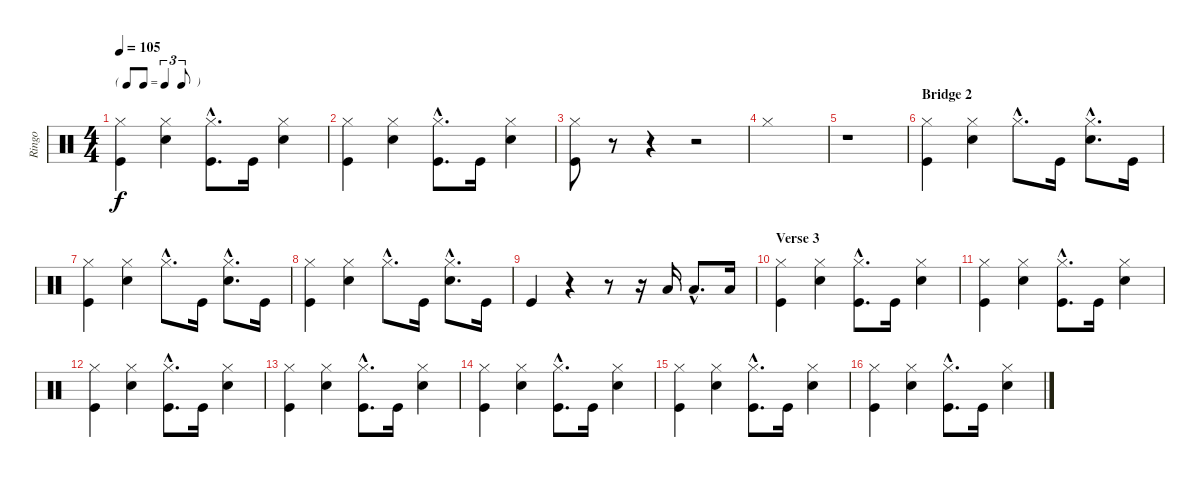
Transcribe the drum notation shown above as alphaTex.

\track ("Ringo" "Ringo") {instrument percussion}
\staff {score}
\articulation defaults
\ts (4 4)
\tf triplet8th
\tempo 105
\clef neutral
\ks c
("Hi-Hat (closed)" "Kick (hit)").4{dy f} ("Hi-Hat (closed)" "Snare (hit) 2").4 ("Hi-Hat (closed)"{hac} "Kick (hit)"{hac}).8{d} "Kick (hit)".16 ("Hi-Hat (closed)" "Snare (hit) 2").4 |
("Hi-Hat (closed)" "Kick (hit)").4 ("Hi-Hat (closed)" "Snare (hit) 2").4 ("Hi-Hat (closed)"{hac} "Kick (hit)"{hac}).8{d} "Kick (hit)".16 ("Hi-Hat (closed)" "Snare (hit) 2").4 |
("Hi-Hat (closed)" "Kick (hit)").8 r.8 r.4 r.2 |
"Hi-Hat (closed)".1 |
r.1 |
\section ("" "Bridge 2")
("Hi-Hat (closed)" "Kick (hit)").4 ("Hi-Hat (closed)" "Snare (hit) 2").4 "Hi-Hat (closed)"{hac}.8{d} "Kick (hit)".16 ("Hi-Hat (closed)"{hac} "Snare (hit) 2"{hac}).8{d} "Kick (hit)".16 |
("Hi-Hat (closed)" "Kick (hit)").4 ("Hi-Hat (closed)" "Snare (hit) 2").4 "Hi-Hat (closed)"{hac}.8{d} "Kick (hit)".16 ("Hi-Hat (closed)"{hac} "Snare (hit) 2"{hac}).8{d} "Kick (hit)".16 |
("Hi-Hat (closed)" "Kick (hit)").4 ("Hi-Hat (closed)" "Snare (hit) 2").4 "Hi-Hat (closed)"{hac}.8{d} "Kick (hit)".16 ("Hi-Hat (closed)"{hac} "Snare (hit) 2"{hac}).8{d} "Kick (hit)".16 |
"Kick (hit)".4 r.4 r.8 r.16 "Low Floor Tom (hit)".16 "Low Floor Tom (hit)"{hac}.8{d} "Low Floor Tom (hit)".16 |
\section ("" "Verse 3")
("Hi-Hat (closed)" "Kick (hit)").4 ("Hi-Hat (closed)" "Snare (hit) 2").4 ("Hi-Hat (closed)"{hac} "Kick (hit)"{hac}).8{d} "Kick (hit)".16 ("Hi-Hat (closed)" "Snare (hit) 2").4 |
("Hi-Hat (closed)" "Kick (hit)").4 ("Hi-Hat (closed)" "Snare (hit) 2").4 ("Hi-Hat (closed)"{hac} "Kick (hit)"{hac}).8{d} "Kick (hit)".16 ("Hi-Hat (closed)" "Snare (hit) 2").4 |
("Hi-Hat (closed)" "Kick (hit)").4 ("Hi-Hat (closed)" "Snare (hit) 2").4 ("Hi-Hat (closed)"{hac} "Kick (hit)"{hac}).8{d} "Kick (hit)".16 ("Hi-Hat (closed)" "Snare (hit) 2").4 |
("Hi-Hat (closed)" "Kick (hit)").4 ("Hi-Hat (closed)" "Snare (hit) 2").4 ("Hi-Hat (closed)"{hac} "Kick (hit)"{hac}).8{d} "Kick (hit)".16 ("Hi-Hat (closed)" "Snare (hit) 2").4 |
("Hi-Hat (closed)" "Kick (hit)").4 ("Hi-Hat (closed)" "Snare (hit) 2").4 ("Hi-Hat (closed)"{hac} "Kick (hit)"{hac}).8{d} "Kick (hit)".16 ("Hi-Hat (closed)" "Snare (hit) 2").4 |
("Hi-Hat (closed)" "Kick (hit)").4 ("Hi-Hat (closed)" "Snare (hit) 2").4 ("Hi-Hat (closed)"{hac} "Kick (hit)"{hac}).8{d} "Kick (hit)".16 ("Hi-Hat (closed)" "Snare (hit) 2").4 |
("Hi-Hat (closed)" "Kick (hit)").4 ("Hi-Hat (closed)" "Snare (hit) 2").4 ("Hi-Hat (closed)"{hac} "Kick (hit)"{hac}).8{d} "Kick (hit)".16 ("Hi-Hat (closed)" "Snare (hit) 2").4
